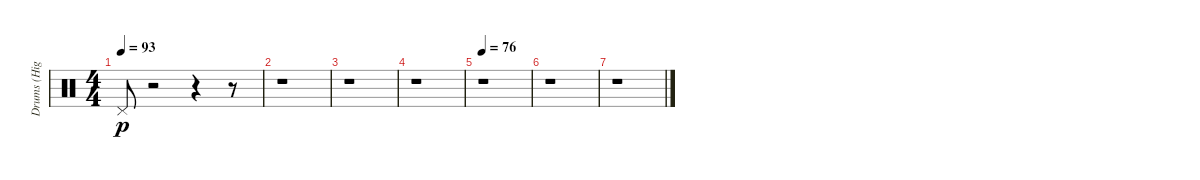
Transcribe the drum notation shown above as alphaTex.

\track ("Drums (High Hat)" "Drums (Hig") {instrument percussion}
\staff {score}
\articulation defaults
\ts (4 4)
\tempo 93
\clef neutral
\ks c "Pedal Hi-Hat (hit)".8{dy p}
r.2 r.4 r.8 |
r.1 |
r.1 |
r.1 |
\tempo 76
r.1 |
r.1 |
r.1
